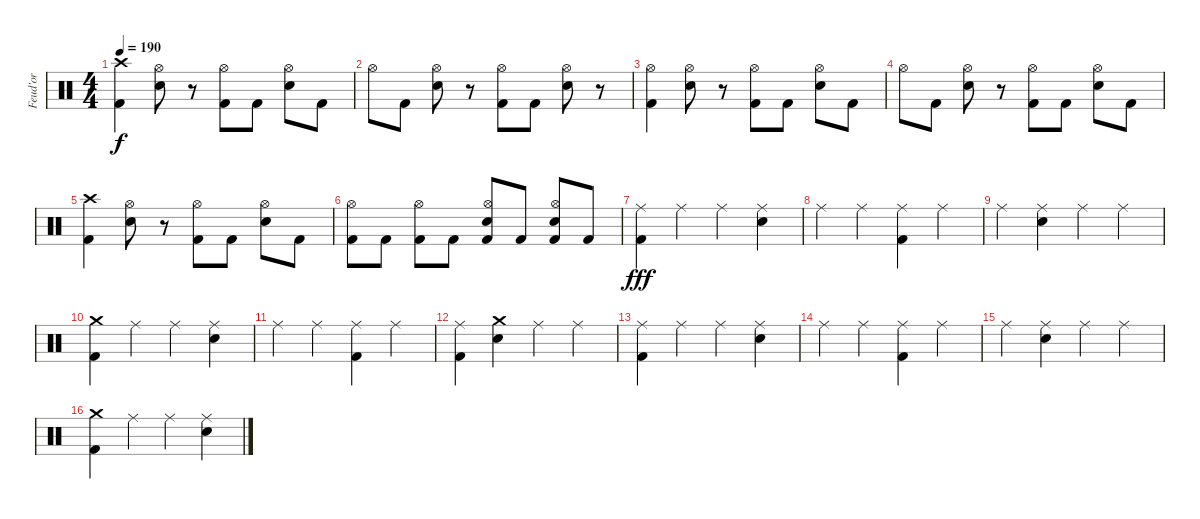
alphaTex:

\track ("Feud'or" "Feud'or") {instrument percussion}
\staff {score}
\articulation defaults
\ts (4 4)
\tempo 190
\clef neutral
\ks c
("Crash high (hit)" "Kick (hit) 2").4{dy f} ("Hi-Hat (open)" "Snare (hit) 2").8 r.8 ("Hi-Hat (open)" "Kick (hit) 2").8 "Kick (hit) 2".8 ("Hi-Hat (open)" "Snare (hit) 2").8 "Kick (hit) 2".8 |
"Hi-Hat (open)".8 "Kick (hit) 2".8 ("Hi-Hat (open)" "Snare (hit) 2").8 r.8 ("Hi-Hat (open)" "Kick (hit) 2").8 "Kick (hit) 2".8 ("Hi-Hat (open)" "Snare (hit) 2").8 r.8 |
("Hi-Hat (open)" "Kick (hit) 2").4 ("Hi-Hat (open)" "Snare (hit) 2").8 r.8 ("Hi-Hat (open)" "Kick (hit) 2").8 "Kick (hit) 2".8 ("Hi-Hat (open)" "Snare (hit) 2").8 "Kick (hit) 2".8 |
"Hi-Hat (open)".8 "Kick (hit) 2".8 ("Hi-Hat (open)" "Snare (hit) 2").8 r.8 ("Hi-Hat (open)" "Kick (hit) 2").8 "Kick (hit) 2".8 ("Hi-Hat (open)" "Snare (hit) 2").8 "Kick (hit) 2".8 |
("Crash high (hit)" "Kick (hit) 2").4 ("Hi-Hat (open)" "Snare (hit) 2").8 r.8 ("Hi-Hat (open)" "Kick (hit) 2").8 "Kick (hit) 2".8 ("Hi-Hat (open)" "Snare (hit) 2").8 "Kick (hit) 2".8 |
("Hi-Hat (open)" "Kick (hit) 2").8 "Kick (hit) 2".8 ("Hi-Hat (open)" "Kick (hit) 2").8 "Kick (hit) 2".8 ("Hi-Hat (open)" "Snare (hit) 2" "Kick (hit) 2").8 "Kick (hit) 2".8 ("Hi-Hat (open)" "Snare (hit) 2" "Kick (hit) 2").8 "Kick (hit) 2".8 |
("Ride (middle)" "Kick (hit) 2").4{dy fff} "Ride (middle)".4 "Ride (middle)".4 ("Ride (middle)" "Snare (hit) 2").4 |
"Ride (middle)".4 "Ride (middle)".4 ("Ride (middle)" "Kick (hit) 2").4 "Ride (middle)".4 |
"Ride (middle)".4 ("Ride (middle)" "Snare (hit) 2").4 "Ride (middle)".4 "Ride (middle)".4 |
("Crash medium (hit)" "Kick (hit) 2").4 "Ride (middle)".4 "Ride (middle)".4 ("Ride (middle)" "Snare (hit) 2").4 |
"Ride (middle)".4 "Ride (middle)".4 ("Ride (middle)" "Kick (hit) 2").4 "Ride (middle)".4 |
("Ride (middle)" "Kick (hit) 2").4 ("Crash medium (hit)" "Snare (hit) 2").4 "Ride (middle)".4 "Ride (middle)".4 |
("Ride (middle)" "Kick (hit) 2").4 "Ride (middle)".4 "Ride (middle)".4 ("Ride (middle)" "Snare (hit) 2").4 |
"Ride (middle)".4 "Ride (middle)".4 ("Ride (middle)" "Kick (hit) 2").4 "Ride (middle)".4 |
"Ride (middle)".4 ("Ride (middle)" "Snare (hit) 2").4 "Ride (middle)".4 "Ride (middle)".4 |
("Crash medium (hit)" "Kick (hit) 2").4 "Ride (middle)".4 "Ride (middle)".4 ("Ride (middle)" "Snare (hit) 2").4
